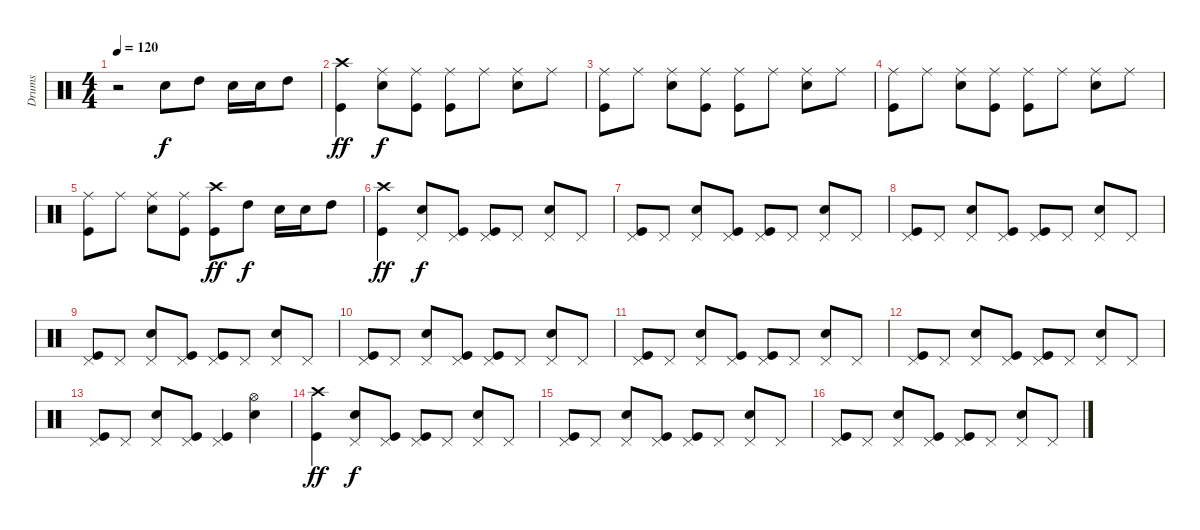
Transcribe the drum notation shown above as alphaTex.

\track ("Drums" "Drums") {instrument percussion}
\staff {score}
\articulation defaults
\ts (4 4)
\tempo 120
\clef neutral
\ks c
r.2{dy f} "Snare (hit) 2".8 "High Tom (hit)".8 "Snare (hit) 2".16 "Snare (hit) 2".16 "High Tom (hit)".8 |
("Kick (hit)" "Crash high (hit)").4{dy ff} ("Snare (hit) 2" "Ride (middle)").8{dy f} ("Kick (hit)" "Ride (middle)").8 ("Kick (hit)" "Ride (middle)").8 "Ride (middle)".8 ("Snare (hit) 2" "Ride (middle)").8 "Ride (middle)".8 |
("Kick (hit)" "Ride (middle)").8 "Ride (middle)".8 ("Snare (hit) 2" "Ride (middle)").8 ("Kick (hit)" "Ride (middle)").8 ("Kick (hit)" "Ride (middle)").8 "Ride (middle)".8 ("Snare (hit) 2" "Ride (middle)").8 "Ride (middle)".8 |
("Kick (hit)" "Ride (middle)").8 "Ride (middle)".8 ("Snare (hit) 2" "Ride (middle)").8 ("Kick (hit)" "Ride (middle)").8 ("Kick (hit)" "Ride (middle)").8 "Ride (middle)".8 ("Snare (hit) 2" "Ride (middle)").8 "Ride (middle)".8 |
("Kick (hit)" "Ride (middle)").8 "Ride (middle)".8 ("Snare (hit) 2" "Ride (middle)").8 ("Kick (hit)" "Ride (middle)").8 ("Kick (hit)" "Crash high (hit)").8{dy ff} "High Tom (hit)".8{dy f} "Snare (hit) 2".16 "Snare (hit) 2".16 "High Tom (hit)".8 |
("Kick (hit)" "Crash high (hit)").4{dy ff} ("Snare (hit) 2" "Pedal Hi-Hat (hit)").8{dy f} ("Kick (hit)" "Pedal Hi-Hat (hit)").8 ("Kick (hit)" "Pedal Hi-Hat (hit)").8 "Pedal Hi-Hat (hit)".8 ("Snare (hit) 2" "Pedal Hi-Hat (hit)").8 "Pedal Hi-Hat (hit)".8 |
("Kick (hit)" "Pedal Hi-Hat (hit)").8 "Pedal Hi-Hat (hit)".8 ("Snare (hit) 2" "Pedal Hi-Hat (hit)").8 ("Kick (hit)" "Pedal Hi-Hat (hit)").8 ("Kick (hit)" "Pedal Hi-Hat (hit)").8 "Pedal Hi-Hat (hit)".8 ("Snare (hit) 2" "Pedal Hi-Hat (hit)").8 "Pedal Hi-Hat (hit)".8 |
("Kick (hit)" "Pedal Hi-Hat (hit)").8 "Pedal Hi-Hat (hit)".8 ("Snare (hit) 2" "Pedal Hi-Hat (hit)").8 ("Kick (hit)" "Pedal Hi-Hat (hit)").8 ("Kick (hit)" "Pedal Hi-Hat (hit)").8 "Pedal Hi-Hat (hit)".8 ("Snare (hit) 2" "Pedal Hi-Hat (hit)").8 "Pedal Hi-Hat (hit)".8 |
("Kick (hit)" "Pedal Hi-Hat (hit)").8 "Pedal Hi-Hat (hit)".8 ("Snare (hit) 2" "Pedal Hi-Hat (hit)").8 ("Kick (hit)" "Pedal Hi-Hat (hit)").8 ("Kick (hit)" "Pedal Hi-Hat (hit)").8 "Pedal Hi-Hat (hit)".8 ("Snare (hit) 2" "Pedal Hi-Hat (hit)").8 "Pedal Hi-Hat (hit)".8 |
("Kick (hit)" "Pedal Hi-Hat (hit)").8 "Pedal Hi-Hat (hit)".8 ("Snare (hit) 2" "Pedal Hi-Hat (hit)").8 ("Kick (hit)" "Pedal Hi-Hat (hit)").8 ("Kick (hit)" "Pedal Hi-Hat (hit)").8 "Pedal Hi-Hat (hit)".8 ("Snare (hit) 2" "Pedal Hi-Hat (hit)").8 "Pedal Hi-Hat (hit)".8 |
("Kick (hit)" "Pedal Hi-Hat (hit)").8 "Pedal Hi-Hat (hit)".8 ("Snare (hit) 2" "Pedal Hi-Hat (hit)").8 ("Kick (hit)" "Pedal Hi-Hat (hit)").8 ("Kick (hit)" "Pedal Hi-Hat (hit)").8 "Pedal Hi-Hat (hit)".8 ("Snare (hit) 2" "Pedal Hi-Hat (hit)").8 "Pedal Hi-Hat (hit)".8 |
("Kick (hit)" "Pedal Hi-Hat (hit)").8 "Pedal Hi-Hat (hit)".8 ("Snare (hit) 2" "Pedal Hi-Hat (hit)").8 ("Kick (hit)" "Pedal Hi-Hat (hit)").8 ("Kick (hit)" "Pedal Hi-Hat (hit)").8 "Pedal Hi-Hat (hit)".8 ("Snare (hit) 2" "Pedal Hi-Hat (hit)").8 "Pedal Hi-Hat (hit)".8 |
("Kick (hit)" "Pedal Hi-Hat (hit)").8 "Pedal Hi-Hat (hit)".8 ("Snare (hit) 2" "Pedal Hi-Hat (hit)").8 ("Kick (hit)" "Pedal Hi-Hat (hit)").8 ("Kick (hit)" "Pedal Hi-Hat (hit)").4 ("Snare (hit) 2" "Hi-Hat (open)").4 |
("Kick (hit)" "Crash high (hit)").4{dy ff} ("Snare (hit) 2" "Pedal Hi-Hat (hit)").8{dy f} ("Kick (hit)" "Pedal Hi-Hat (hit)").8 ("Kick (hit)" "Pedal Hi-Hat (hit)").8 "Pedal Hi-Hat (hit)".8 ("Snare (hit) 2" "Pedal Hi-Hat (hit)").8 "Pedal Hi-Hat (hit)".8 |
("Kick (hit)" "Pedal Hi-Hat (hit)").8 "Pedal Hi-Hat (hit)".8 ("Snare (hit) 2" "Pedal Hi-Hat (hit)").8 ("Kick (hit)" "Pedal Hi-Hat (hit)").8 ("Kick (hit)" "Pedal Hi-Hat (hit)").8 "Pedal Hi-Hat (hit)".8 ("Snare (hit) 2" "Pedal Hi-Hat (hit)").8 "Pedal Hi-Hat (hit)".8 |
("Kick (hit)" "Pedal Hi-Hat (hit)").8 "Pedal Hi-Hat (hit)".8 ("Snare (hit) 2" "Pedal Hi-Hat (hit)").8 ("Kick (hit)" "Pedal Hi-Hat (hit)").8 ("Kick (hit)" "Pedal Hi-Hat (hit)").8 "Pedal Hi-Hat (hit)".8 ("Snare (hit) 2" "Pedal Hi-Hat (hit)").8 "Pedal Hi-Hat (hit)".8
